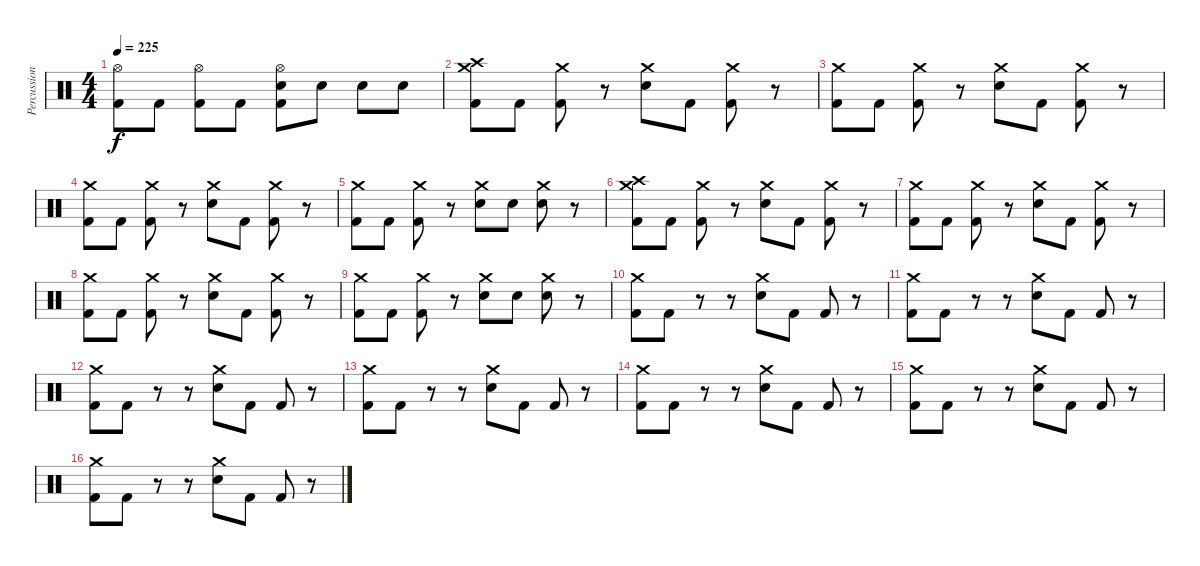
\track ("Percussions" "Percussion") {instrument percussion}
\staff {score}
\articulation defaults
\ts (4 4)
\tempo 225
\clef neutral
\ks c
("Hi-Hat (open)" "Kick (hit) 2").8{dy f} "Kick (hit) 2".8 ("Hi-Hat (open)" "Kick (hit) 2").8 "Kick (hit) 2".8 ("Hi-Hat (open)" "Electric Snare (hit)" "Kick (hit) 2").8 "Electric Snare (hit)".8 "Electric Snare (hit)".8 "Electric Snare (hit)".8 |
("Crash high (hit)" "Crash medium (hit)" "Kick (hit) 2").8 "Kick (hit) 2".8 ("Crash medium (hit)" "Kick (hit) 2").8 r.8 ("Crash medium (hit)" "Electric Snare (hit)").8 "Kick (hit) 2".8 ("Crash medium (hit)" "Kick (hit) 2").8 r.8 |
("Crash medium (hit)" "Kick (hit) 2").8 "Kick (hit) 2".8 ("Crash medium (hit)" "Kick (hit) 2").8 r.8 ("Crash medium (hit)" "Electric Snare (hit)").8 "Kick (hit) 2".8 ("Crash medium (hit)" "Kick (hit) 2").8 r.8 |
("Crash medium (hit)" "Kick (hit) 2").8 "Kick (hit) 2".8 ("Crash medium (hit)" "Kick (hit) 2").8 r.8 ("Crash medium (hit)" "Electric Snare (hit)").8 "Kick (hit) 2".8 ("Crash medium (hit)" "Kick (hit) 2").8 r.8 |
("Crash medium (hit)" "Kick (hit) 2").8 "Kick (hit) 2".8 ("Crash medium (hit)" "Kick (hit) 2").8 r.8 ("Crash medium (hit)" "Electric Snare (hit)").8 "Electric Snare (hit)".8 ("Crash medium (hit)" "Electric Snare (hit)").8 r.8 |
("Crash high (hit)" "Crash medium (hit)" "Kick (hit) 2").8 "Kick (hit) 2".8 ("Crash medium (hit)" "Kick (hit) 2").8 r.8 ("Crash medium (hit)" "Electric Snare (hit)").8 "Kick (hit) 2".8 ("Crash medium (hit)" "Kick (hit) 2").8 r.8 |
("Crash medium (hit)" "Kick (hit) 2").8 "Kick (hit) 2".8 ("Crash medium (hit)" "Kick (hit) 2").8 r.8 ("Crash medium (hit)" "Electric Snare (hit)").8 "Kick (hit) 2".8 ("Crash medium (hit)" "Kick (hit) 2").8 r.8 |
("Crash medium (hit)" "Kick (hit) 2").8 "Kick (hit) 2".8 ("Crash medium (hit)" "Kick (hit) 2").8 r.8 ("Crash medium (hit)" "Electric Snare (hit)").8 "Kick (hit) 2".8 ("Crash medium (hit)" "Kick (hit) 2").8 r.8 |
("Crash medium (hit)" "Kick (hit) 2").8 "Kick (hit) 2".8 ("Crash medium (hit)" "Kick (hit) 2").8 r.8 ("Crash medium (hit)" "Electric Snare (hit)").8 "Electric Snare (hit)".8 ("Crash medium (hit)" "Electric Snare (hit)").8 r.8 |
("Crash medium (hit)" "Kick (hit) 2").8 "Kick (hit) 2".8 r.8 r.8 ("Crash medium (hit)" "Electric Snare (hit)").8 "Kick (hit) 2".8 "Kick (hit) 2".8 r.8 |
("Crash medium (hit)" "Kick (hit) 2").8 "Kick (hit) 2".8 r.8 r.8 ("Crash medium (hit)" "Electric Snare (hit)").8 "Kick (hit) 2".8 "Kick (hit) 2".8 r.8 |
("Crash medium (hit)" "Kick (hit) 2").8 "Kick (hit) 2".8 r.8 r.8 ("Crash medium (hit)" "Electric Snare (hit)").8 "Kick (hit) 2".8 "Kick (hit) 2".8 r.8 |
("Crash medium (hit)" "Kick (hit) 2").8 "Kick (hit) 2".8 r.8 r.8 ("Crash medium (hit)" "Electric Snare (hit)").8 "Kick (hit) 2".8 "Kick (hit) 2".8 r.8 |
("Crash medium (hit)" "Kick (hit) 2").8 "Kick (hit) 2".8 r.8 r.8 ("Crash medium (hit)" "Electric Snare (hit)").8 "Kick (hit) 2".8 "Kick (hit) 2".8 r.8 |
("Crash medium (hit)" "Kick (hit) 2").8 "Kick (hit) 2".8 r.8 r.8 ("Crash medium (hit)" "Electric Snare (hit)").8 "Kick (hit) 2".8 "Kick (hit) 2".8 r.8 |
("Crash medium (hit)" "Kick (hit) 2").8 "Kick (hit) 2".8 r.8 r.8 ("Crash medium (hit)" "Electric Snare (hit)").8 "Kick (hit) 2".8 "Kick (hit) 2".8 r.8
